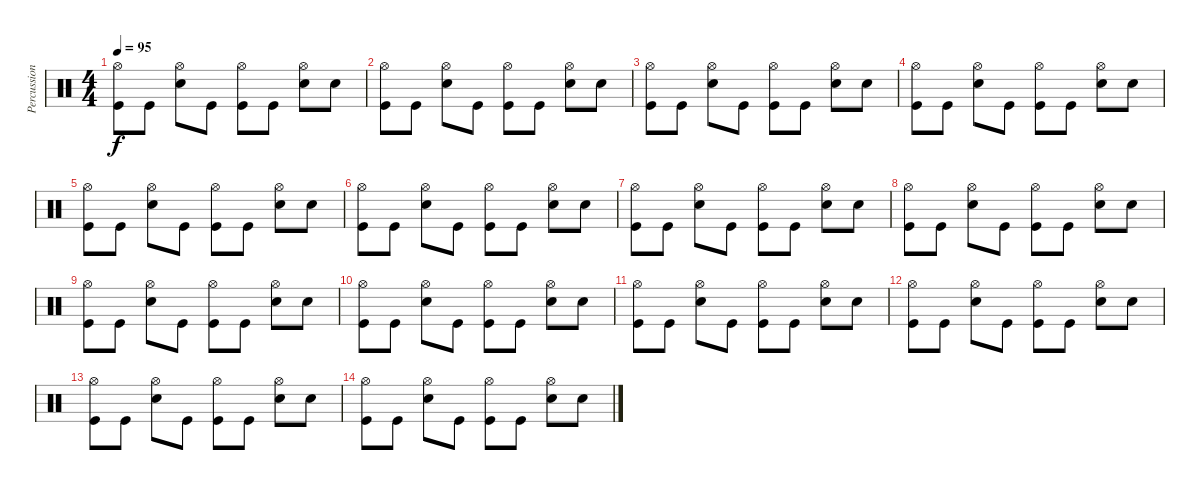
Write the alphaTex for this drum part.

\track ("Percussion" "Percussion") {instrument percussion}
\staff {score}
\articulation defaults
\ts (4 4)
\tempo 95
\clef neutral
\ks c
("Kick (hit)" "Hi-Hat (open)").8{dy f} "Kick (hit)".8 ("Snare (hit) 2" "Hi-Hat (open)").8 "Kick (hit)".8 ("Kick (hit)" "Hi-Hat (open)").8 "Kick (hit)".8 ("Snare (hit) 2" "Hi-Hat (open)").8 "Snare (hit) 2".8 |
("Kick (hit)" "Hi-Hat (open)").8 "Kick (hit)".8 ("Snare (hit) 2" "Hi-Hat (open)").8 "Kick (hit)".8 ("Kick (hit)" "Hi-Hat (open)").8 "Kick (hit)".8 ("Snare (hit) 2" "Hi-Hat (open)").8 "Snare (hit) 2".8 |
("Kick (hit)" "Hi-Hat (open)").8 "Kick (hit)".8 ("Snare (hit) 2" "Hi-Hat (open)").8 "Kick (hit)".8 ("Kick (hit)" "Hi-Hat (open)").8 "Kick (hit)".8 ("Snare (hit) 2" "Hi-Hat (open)").8 "Snare (hit) 2".8 |
("Kick (hit)" "Hi-Hat (open)").8 "Kick (hit)".8 ("Snare (hit) 2" "Hi-Hat (open)").8 "Kick (hit)".8 ("Kick (hit)" "Hi-Hat (open)").8 "Kick (hit)".8 ("Snare (hit) 2" "Hi-Hat (open)").8 "Snare (hit) 2".8 |
("Kick (hit)" "Hi-Hat (open)").8 "Kick (hit)".8 ("Snare (hit) 2" "Hi-Hat (open)").8 "Kick (hit)".8 ("Kick (hit)" "Hi-Hat (open)").8 "Kick (hit)".8 ("Snare (hit) 2" "Hi-Hat (open)").8 "Snare (hit) 2".8 |
("Kick (hit)" "Hi-Hat (open)").8 "Kick (hit)".8 ("Snare (hit) 2" "Hi-Hat (open)").8 "Kick (hit)".8 ("Kick (hit)" "Hi-Hat (open)").8 "Kick (hit)".8 ("Snare (hit) 2" "Hi-Hat (open)").8 "Snare (hit) 2".8 |
("Kick (hit)" "Hi-Hat (open)").8 "Kick (hit)".8 ("Snare (hit) 2" "Hi-Hat (open)").8 "Kick (hit)".8 ("Kick (hit)" "Hi-Hat (open)").8 "Kick (hit)".8 ("Snare (hit) 2" "Hi-Hat (open)").8 "Snare (hit) 2".8 |
("Kick (hit)" "Hi-Hat (open)").8 "Kick (hit)".8 ("Snare (hit) 2" "Hi-Hat (open)").8 "Kick (hit)".8 ("Kick (hit)" "Hi-Hat (open)").8 "Kick (hit)".8 ("Snare (hit) 2" "Hi-Hat (open)").8 "Snare (hit) 2".8 |
("Kick (hit)" "Hi-Hat (open)").8 "Kick (hit)".8 ("Snare (hit) 2" "Hi-Hat (open)").8 "Kick (hit)".8 ("Kick (hit)" "Hi-Hat (open)").8 "Kick (hit)".8 ("Snare (hit) 2" "Hi-Hat (open)").8 "Snare (hit) 2".8 |
("Kick (hit)" "Hi-Hat (open)").8 "Kick (hit)".8 ("Snare (hit) 2" "Hi-Hat (open)").8 "Kick (hit)".8 ("Kick (hit)" "Hi-Hat (open)").8 "Kick (hit)".8 ("Snare (hit) 2" "Hi-Hat (open)").8 "Snare (hit) 2".8 |
("Kick (hit)" "Hi-Hat (open)").8 "Kick (hit)".8 ("Snare (hit) 2" "Hi-Hat (open)").8 "Kick (hit)".8 ("Kick (hit)" "Hi-Hat (open)").8 "Kick (hit)".8 ("Snare (hit) 2" "Hi-Hat (open)").8 "Snare (hit) 2".8 |
("Kick (hit)" "Hi-Hat (open)").8 "Kick (hit)".8 ("Snare (hit) 2" "Hi-Hat (open)").8 "Kick (hit)".8 ("Kick (hit)" "Hi-Hat (open)").8 "Kick (hit)".8 ("Snare (hit) 2" "Hi-Hat (open)").8 "Snare (hit) 2".8 |
("Kick (hit)" "Hi-Hat (open)").8 "Kick (hit)".8 ("Snare (hit) 2" "Hi-Hat (open)").8 "Kick (hit)".8 ("Kick (hit)" "Hi-Hat (open)").8 "Kick (hit)".8 ("Snare (hit) 2" "Hi-Hat (open)").8 "Snare (hit) 2".8 |
("Kick (hit)" "Hi-Hat (open)").8 "Kick (hit)".8 ("Snare (hit) 2" "Hi-Hat (open)").8 "Kick (hit)".8 ("Kick (hit)" "Hi-Hat (open)").8 "Kick (hit)".8 ("Snare (hit) 2" "Hi-Hat (open)").8 "Snare (hit) 2".8
